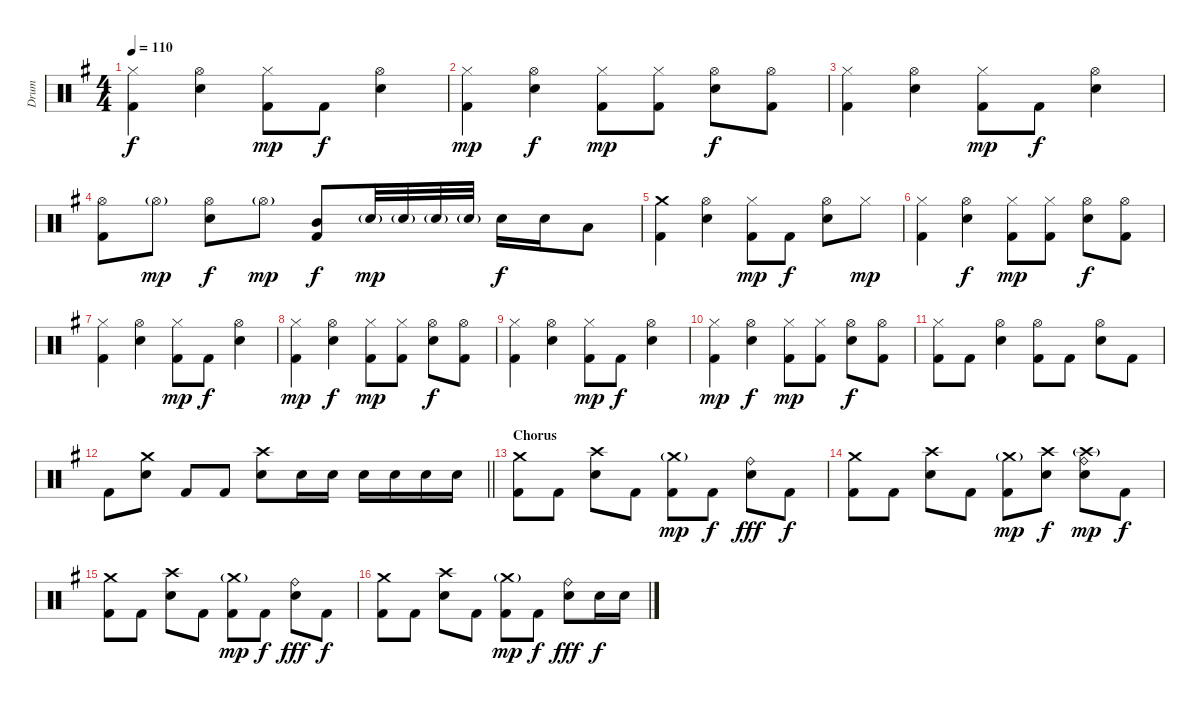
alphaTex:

\track ("Drum" "Drum") {instrument percussion}
\staff {score}
\articulation defaults
\ts (4 4)
\tempo 110
\clef neutral
\ks g
("Hi-Hat (closed)" "Kick (hit) 2").4{dy f} ("Hi-Hat (open)" "Electric Snare (hit)").4 ("Hi-Hat (closed)" "Kick (hit) 2").8{dy mp} "Kick (hit) 2".8{dy f} ("Hi-Hat (open)" "Electric Snare (hit)").4 |
("Hi-Hat (closed)" "Kick (hit) 2").4{dy mp} ("Hi-Hat (open)" "Electric Snare (hit)").4{dy f} ("Hi-Hat (closed)" "Kick (hit) 2").8{dy mp} ("Hi-Hat (closed)" "Kick (hit) 2").8 ("Hi-Hat (open)" "Electric Snare (hit)").8{dy f} ("Hi-Hat (open)" "Kick (hit) 2").8 |
("Hi-Hat (closed)" "Kick (hit) 2").4 ("Hi-Hat (open)" "Electric Snare (hit)").4 ("Hi-Hat (closed)" "Kick (hit) 2").8{dy mp} "Kick (hit) 2".8{dy f} ("Hi-Hat (open)" "Electric Snare (hit)").4 |
("Hi-Hat (open)" "Kick (hit) 2").8 "Hi-Hat (open)"{g}.8{dy mp} ("Hi-Hat (open)" "Electric Snare (hit)").8{dy f} "Hi-Hat (open)"{g}.8{dy mp} ("Mid Tom (hit)" "Kick (hit) 2").8{dy f} "Electric Snare (hit)"{g}.32{dy mp} "Electric Snare (hit)"{g}.32 "Electric Snare (hit)"{g}.32 "Electric Snare (hit)"{g}.32 "Electric Snare (hit)".16{dy f} "Electric Snare (hit)".16 "Low Tom (hit)".8 |
("Crash medium (hit)" "Kick (hit) 2").4 ("Hi-Hat (open)" "Electric Snare (hit)").4 ("Hi-Hat (closed)" "Kick (hit) 2").8{dy mp} "Kick (hit) 2".8{dy f} ("Hi-Hat (open)" "Electric Snare (hit)").8 "Hi-Hat (closed)".8{dy mp} |
("Hi-Hat (closed)" "Kick (hit) 2").4 ("Hi-Hat (open)" "Electric Snare (hit)").4{dy f} ("Hi-Hat (closed)" "Kick (hit) 2").8{dy mp} ("Hi-Hat (closed)" "Kick (hit) 2").8 ("Hi-Hat (open)" "Electric Snare (hit)").8{dy f} ("Hi-Hat (open)" "Kick (hit) 2").8 |
("Hi-Hat (closed)" "Kick (hit) 2").4 ("Hi-Hat (open)" "Electric Snare (hit)").4 ("Hi-Hat (closed)" "Kick (hit) 2").8{dy mp} "Kick (hit) 2".8{dy f} ("Hi-Hat (open)" "Electric Snare (hit)").4 |
("Hi-Hat (closed)" "Kick (hit) 2").4{dy mp} ("Hi-Hat (open)" "Electric Snare (hit)").4{dy f} ("Hi-Hat (closed)" "Kick (hit) 2").8{dy mp} ("Hi-Hat (closed)" "Kick (hit) 2").8 ("Hi-Hat (open)" "Electric Snare (hit)").8{dy f} ("Hi-Hat (open)" "Kick (hit) 2").8 |
("Hi-Hat (closed)" "Kick (hit) 2").4 ("Hi-Hat (open)" "Electric Snare (hit)").4 ("Hi-Hat (closed)" "Kick (hit) 2").8{dy mp} "Kick (hit) 2".8{dy f} ("Hi-Hat (open)" "Electric Snare (hit)").4 |
("Hi-Hat (closed)" "Kick (hit) 2").4{dy mp} ("Hi-Hat (open)" "Electric Snare (hit)").4{dy f} ("Hi-Hat (closed)" "Kick (hit) 2").8{dy mp} ("Hi-Hat (closed)" "Kick (hit) 2").8 ("Hi-Hat (open)" "Electric Snare (hit)").8{dy f} ("Hi-Hat (open)" "Kick (hit) 2").8 |
("Hi-Hat (closed)" "Kick (hit) 2").8 "Kick (hit) 2".8 ("Hi-Hat (open)" "Electric Snare (hit)").4 ("Hi-Hat (open)" "Kick (hit) 2").8 "Kick (hit) 2".8 ("Hi-Hat (open)" "Electric Snare (hit)").8 "Kick (hit) 2".8 |
\barLineRight lightlight "Kick (hit) 2".8
("Crash medium (hit)" "Electric Snare (hit)").8 "Kick (hit) 2".8 "Kick (hit) 2".8 ("Crash high (hit)" "Electric Snare (hit)").8 "Electric Snare (hit)".16 "Electric Snare (hit)".16 "Electric Snare (hit)".16 "Electric Snare (hit)".16 "Electric Snare (hit)".16 "Electric Snare (hit)".16 |
\section ("" "Chorus")
("Crash medium (hit)" "Kick (hit) 2").8 "Kick (hit) 2".8 ("Crash high (hit)" "Electric Snare (hit)").8 "Kick (hit) 2".8 ("Crash medium (hit)"{g} "Kick (hit) 2").8{dy mp} "Kick (hit) 2".8{dy f} ("Ride (bell)" "Electric Snare (hit)").8{dy fff} "Kick (hit) 2".8{dy f} |
("Crash medium (hit)" "Kick (hit) 2").8 "Kick (hit) 2".8 ("Crash high (hit)" "Electric Snare (hit)").8 "Kick (hit) 2".8 ("Crash medium (hit)"{g} "Kick (hit) 2").8{dy mp} ("Crash high (hit)" "Electric Snare (hit)").8{dy f} ("Crash high (hit)"{g} "Ride (bell)" "Electric Snare (hit)").8{dy mp} "Kick (hit) 2".8{dy f} |
("Crash medium (hit)" "Kick (hit) 2").8 "Kick (hit) 2".8 ("Crash high (hit)" "Electric Snare (hit)").8 "Kick (hit) 2".8 ("Crash medium (hit)"{g} "Kick (hit) 2").8{dy mp} "Kick (hit) 2".8{dy f} ("Ride (bell)" "Electric Snare (hit)").8{dy fff} "Kick (hit) 2".8{dy f} |
("Crash medium (hit)" "Kick (hit) 2").8 "Kick (hit) 2".8 ("Crash high (hit)" "Electric Snare (hit)").8 "Kick (hit) 2".8 ("Crash medium (hit)"{g} "Kick (hit) 2").8{dy mp} "Kick (hit) 2".8{dy f} ("Ride (bell)" "Electric Snare (hit)").8{dy fff} "Electric Snare (hit)".16{dy f} "Electric Snare (hit)".16
